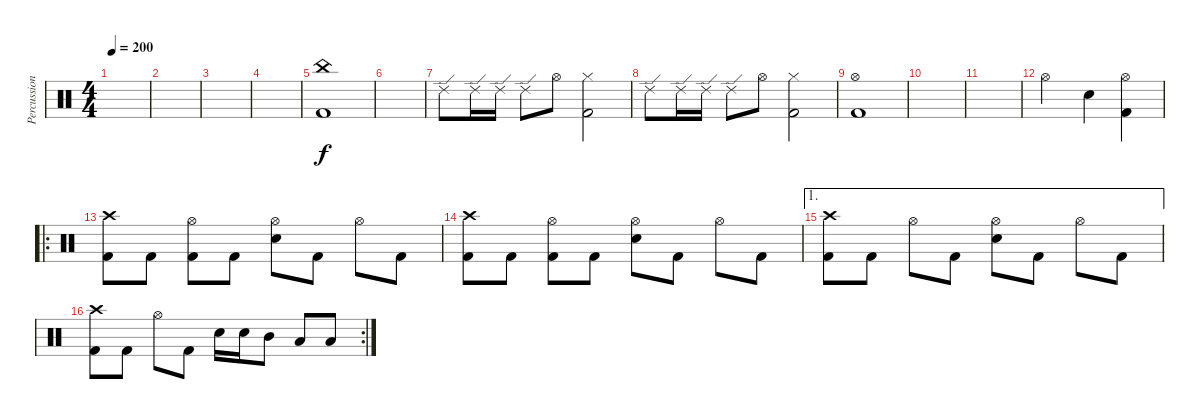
\track ("Percussions" "Percussion") {instrument percussion}
\staff {score}
\articulation defaults
\ts (4 4)
\tempo 200
\clef neutral
\ks c
|
|
|
|
("China (hit)" "Kick (hit) 2").1 |
|
"Ride (edge) 2".8 "Ride (edge) 2".16 "Ride (edge) 2".16 "Ride (edge) 2".8 "Hi-Hat (open)".8 ("Hi-Hat (closed)" "Kick (hit) 2").2 |
"Ride (edge) 2".8 "Ride (edge) 2".16 "Ride (edge) 2".16 "Ride (edge) 2".8 "Hi-Hat (open)".8 ("Hi-Hat (closed)" "Kick (hit) 2").2 |
("Hi-Hat (open)" "Kick (hit) 2").1 |
|
|
"Hi-Hat (open)".2 "Snare (hit) 2".4 ("Hi-Hat (open)" "Kick (hit) 2").4 |
\ro
("Crash high (hit)" "Kick (hit) 2").8 "Kick (hit) 2".8 ("Hi-Hat (open)" "Kick (hit) 2").8 "Kick (hit) 2".8 ("Hi-Hat (open)" "Snare (hit) 2").8 "Kick (hit) 2".8 "Hi-Hat (open)".8 "Kick (hit) 2".8 |
("Crash high (hit)" "Kick (hit) 2").8 "Kick (hit) 2".8 ("Hi-Hat (open)" "Kick (hit) 2").8 "Kick (hit) 2".8 ("Hi-Hat (open)" "Snare (hit) 2").8 "Kick (hit) 2".8 "Hi-Hat (open)".8 "Kick (hit) 2".8 |
\ae 1
("Crash high (hit)" "Kick (hit) 2").8 "Kick (hit) 2".8 "Hi-Hat (open)".8 "Kick (hit) 2".8 ("Hi-Hat (open)" "Snare (hit) 2").8 "Kick (hit) 2".8 "Hi-Hat (open)".8 "Kick (hit) 2".8 |
\rc 2
("Crash high (hit)" "Kick (hit) 2").8 "Kick (hit) 2".8 "Hi-Hat (open)".8 "Kick (hit) 2".8 "Snare (hit) 2".16 "Snare (hit) 2".16 "Mid Tom (hit)".8 "Low Tom (hit)".8 "Low Floor Tom (hit)".8
